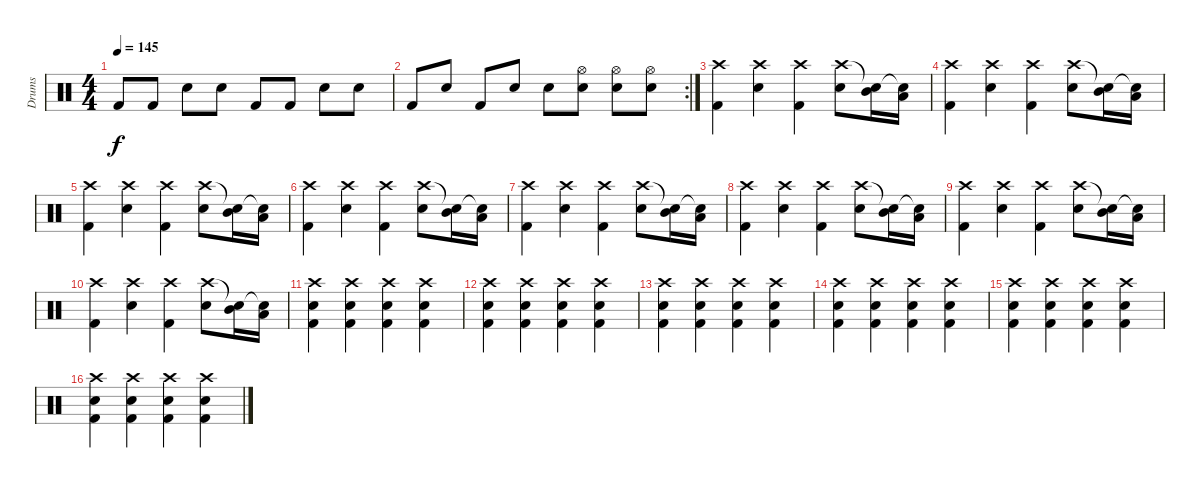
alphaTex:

\track ("Drums" "Drums") {instrument percussion}
\staff {score}
\articulation defaults
\ts (4 4)
\tempo 145
\clef neutral
\ks c "Kick (hit) 2".8{dy f} "Kick (hit) 2".8 "Snare (hit) 2".8 "Snare (hit) 2".8 "Kick (hit) 2".8 "Kick (hit) 2".8 "Snare (hit) 2".8 "Snare (hit) 2".8
|
\rc 2 "Kick (hit) 2".8 "Snare (hit) 2".8 "Kick (hit) 2".8 "Snare (hit) 2".8 "Snare (hit) 2".8
("Hi-Hat (open)" "Snare (hit) 2").8 ("Hi-Hat (open)" "Snare (hit) 2").8 ("Hi-Hat (open)" "Snare (hit) 2").8 |
("Crash high (hit)" "Kick (hit) 2").4 ("Crash high (hit)" "Snare (hit) 2").4 ("Crash high (hit)" "Kick (hit) 2").4 ("Crash high (hit)" "Snare (hit) 2").8 ("Snare (hit)"{t} "Mid Tom (hit)").16 ("Snare (hit)"{t} "Low Tom (hit)").16 |
("Crash high (hit)" "Kick (hit) 2").4 ("Crash high (hit)" "Snare (hit) 2").4 ("Crash high (hit)" "Kick (hit) 2").4 ("Crash high (hit)" "Snare (hit) 2").8 ("Snare (hit)"{t} "Mid Tom (hit)").16 ("Snare (hit)"{t} "Low Tom (hit)").16 |
("Crash high (hit)" "Kick (hit) 2").4 ("Crash high (hit)" "Snare (hit) 2").4 ("Crash high (hit)" "Kick (hit) 2").4 ("Crash high (hit)" "Snare (hit) 2").8 ("Snare (hit)"{t} "Mid Tom (hit)").16 ("Snare (hit)"{t} "Low Tom (hit)").16 |
("Crash high (hit)" "Kick (hit) 2").4 ("Crash high (hit)" "Snare (hit) 2").4 ("Crash high (hit)" "Kick (hit) 2").4 ("Crash high (hit)" "Snare (hit) 2").8 ("Snare (hit)"{t} "Mid Tom (hit)").16 ("Snare (hit)"{t} "Low Tom (hit)").16 |
("Crash high (hit)" "Kick (hit) 2").4 ("Crash high (hit)" "Snare (hit) 2").4 ("Crash high (hit)" "Kick (hit) 2").4 ("Crash high (hit)" "Snare (hit) 2").8 ("Snare (hit)"{t} "Mid Tom (hit)").16 ("Snare (hit)"{t} "Low Tom (hit)").16 |
("Crash high (hit)" "Kick (hit) 2").4 ("Crash high (hit)" "Snare (hit) 2").4 ("Crash high (hit)" "Kick (hit) 2").4 ("Crash high (hit)" "Snare (hit) 2").8 ("Snare (hit)"{t} "Mid Tom (hit)").16 ("Snare (hit)"{t} "Low Tom (hit)").16 |
("Crash high (hit)" "Kick (hit) 2").4 ("Crash high (hit)" "Snare (hit) 2").4 ("Crash high (hit)" "Kick (hit) 2").4 ("Crash high (hit)" "Snare (hit) 2").8 ("Snare (hit)"{t} "Mid Tom (hit)").16 ("Snare (hit)"{t} "Low Tom (hit)").16 |
("Crash high (hit)" "Kick (hit) 2").4 ("Crash high (hit)" "Snare (hit) 2").4 ("Crash high (hit)" "Kick (hit) 2").4 ("Crash high (hit)" "Snare (hit) 2").8 ("Snare (hit)"{t} "Mid Tom (hit)").16 ("Snare (hit)"{t} "Low Tom (hit)").16 |
("Crash high (hit)" "Snare (hit) 2" "Kick (hit) 2").4 ("Crash high (hit)" "Snare (hit) 2" "Kick (hit) 2").4 ("Crash high (hit)" "Snare (hit) 2" "Kick (hit) 2").4 ("Crash high (hit)" "Snare (hit) 2" "Kick (hit) 2").4 |
("Crash high (hit)" "Snare (hit) 2" "Kick (hit) 2").4 ("Crash high (hit)" "Snare (hit) 2" "Kick (hit) 2").4 ("Crash high (hit)" "Snare (hit) 2" "Kick (hit) 2").4 ("Crash high (hit)" "Snare (hit) 2" "Kick (hit) 2").4 |
("Crash high (hit)" "Snare (hit) 2" "Kick (hit) 2").4 ("Crash high (hit)" "Snare (hit) 2" "Kick (hit) 2").4 ("Crash high (hit)" "Snare (hit) 2" "Kick (hit) 2").4 ("Crash high (hit)" "Snare (hit) 2" "Kick (hit) 2").4 |
("Crash high (hit)" "Snare (hit) 2" "Kick (hit) 2").4 ("Crash high (hit)" "Snare (hit) 2" "Kick (hit) 2").4 ("Crash high (hit)" "Snare (hit) 2" "Kick (hit) 2").4 ("Crash high (hit)" "Snare (hit) 2" "Kick (hit) 2").4 |
("Crash high (hit)" "Snare (hit) 2" "Kick (hit) 2").4 ("Crash high (hit)" "Snare (hit) 2" "Kick (hit) 2").4 ("Crash high (hit)" "Snare (hit) 2" "Kick (hit) 2").4 ("Crash high (hit)" "Snare (hit) 2" "Kick (hit) 2").4 |
("Crash high (hit)" "Snare (hit) 2" "Kick (hit) 2").4 ("Crash high (hit)" "Snare (hit) 2" "Kick (hit) 2").4 ("Crash high (hit)" "Snare (hit) 2" "Kick (hit) 2").4 ("Crash high (hit)" "Snare (hit) 2" "Kick (hit) 2").4
